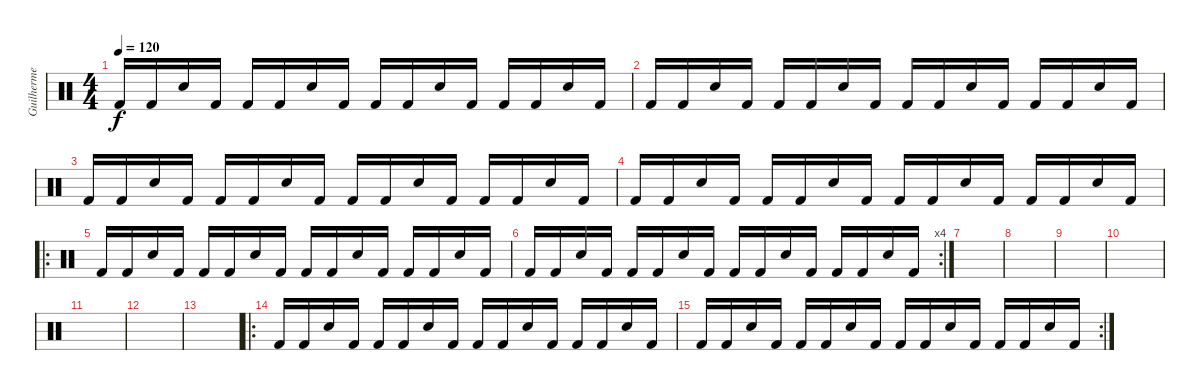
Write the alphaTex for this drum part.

\track ("Guilherme" "Guilherme") {instrument percussion}
\staff {score}
\articulation defaults
\ts (4 4)
\tempo 120
\clef neutral
\ks c "Kick (hit) 2".16{dy f} "Kick (hit) 2".16 "Snare (hit) 2".16 "Kick (hit) 2".16 "Kick (hit) 2".16 "Kick (hit) 2".16 "Snare (hit) 2".16 "Kick (hit) 2".16 "Kick (hit) 2".16 "Kick (hit) 2".16 "Snare (hit) 2".16 "Kick (hit) 2".16 "Kick (hit) 2".16 "Kick (hit) 2".16 "Snare (hit) 2".16 "Kick (hit) 2".16
|
"Kick (hit) 2".16 "Kick (hit) 2".16 "Snare (hit) 2".16 "Kick (hit) 2".16 "Kick (hit) 2".16 "Kick (hit) 2".16 "Snare (hit) 2".16 "Kick (hit) 2".16 "Kick (hit) 2".16 "Kick (hit) 2".16 "Snare (hit) 2".16 "Kick (hit) 2".16 "Kick (hit) 2".16 "Kick (hit) 2".16 "Snare (hit) 2".16 "Kick (hit) 2".16 |
"Kick (hit) 2".16 "Kick (hit) 2".16 "Snare (hit) 2".16 "Kick (hit) 2".16 "Kick (hit) 2".16 "Kick (hit) 2".16 "Snare (hit) 2".16 "Kick (hit) 2".16 "Kick (hit) 2".16 "Kick (hit) 2".16 "Snare (hit) 2".16 "Kick (hit) 2".16 "Kick (hit) 2".16 "Kick (hit) 2".16 "Snare (hit) 2".16 "Kick (hit) 2".16 |
"Kick (hit) 2".16 "Kick (hit) 2".16 "Snare (hit) 2".16 "Kick (hit) 2".16 "Kick (hit) 2".16 "Kick (hit) 2".16 "Snare (hit) 2".16 "Kick (hit) 2".16 "Kick (hit) 2".16 "Kick (hit) 2".16 "Snare (hit) 2".16 "Kick (hit) 2".16 "Kick (hit) 2".16 "Kick (hit) 2".16 "Snare (hit) 2".16 "Kick (hit) 2".16 |
\ro "Kick (hit) 2".16 "Kick (hit) 2".16 "Snare (hit) 2".16 "Kick (hit) 2".16 "Kick (hit) 2".16 "Kick (hit) 2".16 "Snare (hit) 2".16 "Kick (hit) 2".16 "Kick (hit) 2".16 "Kick (hit) 2".16 "Snare (hit) 2".16 "Kick (hit) 2".16 "Kick (hit) 2".16 "Kick (hit) 2".16 "Snare (hit) 2".16 "Kick (hit) 2".16
|
\rc 4 "Kick (hit) 2".16 "Kick (hit) 2".16 "Snare (hit) 2".16 "Kick (hit) 2".16 "Kick (hit) 2".16 "Kick (hit) 2".16 "Snare (hit) 2".16 "Kick (hit) 2".16 "Kick (hit) 2".16 "Kick (hit) 2".16 "Snare (hit) 2".16 "Kick (hit) 2".16 "Kick (hit) 2".16 "Kick (hit) 2".16 "Snare (hit) 2".16 "Kick (hit) 2".16
|
|
|
|
|
|
|
|
\ro "Kick (hit) 2".16 "Kick (hit) 2".16 "Snare (hit) 2".16 "Kick (hit) 2".16 "Kick (hit) 2".16 "Kick (hit) 2".16 "Snare (hit) 2".16 "Kick (hit) 2".16 "Kick (hit) 2".16 "Kick (hit) 2".16 "Snare (hit) 2".16 "Kick (hit) 2".16 "Kick (hit) 2".16 "Kick (hit) 2".16 "Snare (hit) 2".16 "Kick (hit) 2".16
|
\rc 2 "Kick (hit) 2".16 "Kick (hit) 2".16 "Snare (hit) 2".16 "Kick (hit) 2".16 "Kick (hit) 2".16 "Kick (hit) 2".16 "Snare (hit) 2".16 "Kick (hit) 2".16 "Kick (hit) 2".16 "Kick (hit) 2".16 "Snare (hit) 2".16 "Kick (hit) 2".16 "Kick (hit) 2".16 "Kick (hit) 2".16 "Snare (hit) 2".16 "Kick (hit) 2".16
